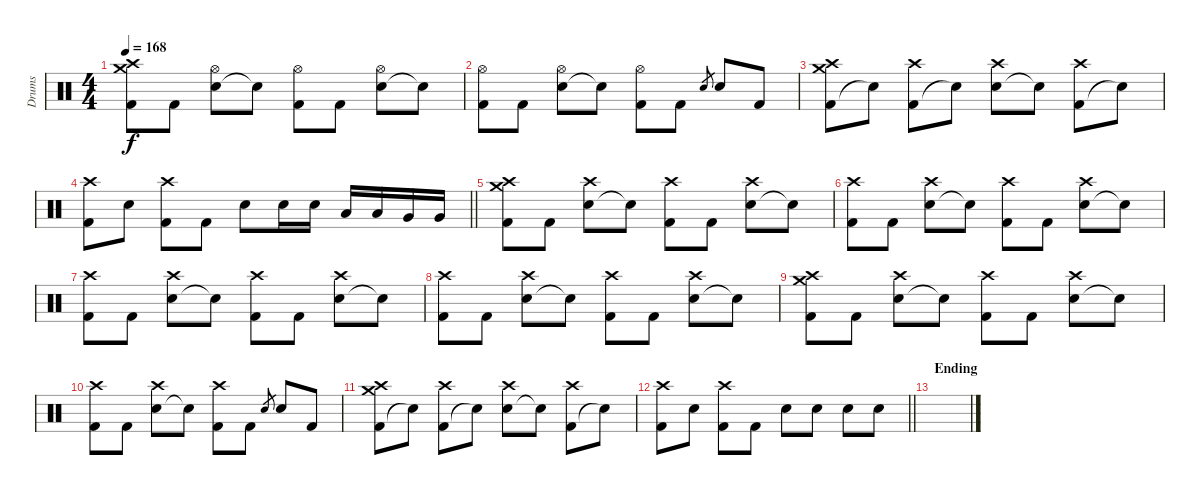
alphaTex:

\track ("Drums" "Drums") {instrument percussion}
\staff {score}
\articulation defaults
\ts (4 4)
\tempo 168
\clef neutral
\ks c
("Kick (hit) 2" "Crash medium (hit)" "Crash high (hit)").8{dy f} "Kick (hit) 2".8 ("Electric Snare (hit)" "Hi-Hat (open)").8 "Snare (hit)"{t}.8 ("Kick (hit) 2" "Hi-Hat (open)").8 "Kick (hit) 2".8 ("Electric Snare (hit)" "Hi-Hat (open)").8 "Snare (hit)"{t}.8 |
("Kick (hit) 2" "Hi-Hat (open)").8 "Kick (hit) 2".8 ("Electric Snare (hit)" "Hi-Hat (open)").8 "Snare (hit)"{t}.8 ("Kick (hit) 2" "Hi-Hat (open)").8 "Kick (hit) 2".8 "Electric Snare (hit)".8{gr} "Electric Snare (hit)".8 "Kick (hit) 2".8 |
("Kick (hit) 2" "Crash medium (hit)" "Crash high (hit)").8 "Snare (hit)"{t}.8 ("Kick (hit) 2" "Crash high (hit)").8 "Snare (hit)"{t}.8 ("Electric Snare (hit)" "Crash high (hit)").8 "Snare (hit)"{t}.8 ("Kick (hit) 2" "Crash high (hit)").8 "Snare (hit)"{t}.8 |
\barLineRight lightlight
("Kick (hit) 2" "Crash high (hit)").8 "Electric Snare (hit)".8 ("Kick (hit) 2" "Crash high (hit)").8 "Kick (hit) 2".8 "Electric Snare (hit)".8 "Electric Snare (hit)".16 "Electric Snare (hit)".16 "Low Tom (hit)".16 "Low Tom (hit)".16 "Very Low Tom (hit)".16 "Very Low Tom (hit)".16 |
("Kick (hit) 2" "Crash medium (hit)" "Crash high (hit)").8 "Kick (hit) 2".8 ("Electric Snare (hit)" "Crash high (hit)").8 "Snare (hit)"{t}.8 ("Kick (hit) 2" "Crash high (hit)").8 "Kick (hit) 2".8 ("Electric Snare (hit)" "Crash high (hit)").8 "Snare (hit)"{t}.8 |
("Kick (hit) 2" "Crash high (hit)").8 "Kick (hit) 2".8 ("Electric Snare (hit)" "Crash high (hit)").8 "Snare (hit)"{t}.8 ("Kick (hit) 2" "Crash high (hit)").8 "Kick (hit) 2".8 ("Electric Snare (hit)" "Crash high (hit)").8 "Snare (hit)"{t}.8 |
("Kick (hit) 2" "Crash high (hit)").8 "Kick (hit) 2".8 ("Electric Snare (hit)" "Crash high (hit)").8 "Snare (hit)"{t}.8 ("Kick (hit) 2" "Crash high (hit)").8 "Kick (hit) 2".8 ("Electric Snare (hit)" "Crash high (hit)").8 "Snare (hit)"{t}.8 |
("Kick (hit) 2" "Crash high (hit)").8 "Kick (hit) 2".8 ("Electric Snare (hit)" "Crash high (hit)").8 "Snare (hit)"{t}.8 ("Kick (hit) 2" "Crash high (hit)").8 "Kick (hit) 2".8 ("Electric Snare (hit)" "Crash high (hit)").8 "Snare (hit)"{t}.8 |
("Kick (hit) 2" "Crash medium (hit)" "Crash high (hit)").8 "Kick (hit) 2".8 ("Electric Snare (hit)" "Crash high (hit)").8 "Snare (hit)"{t}.8 ("Kick (hit) 2" "Crash high (hit)").8 "Kick (hit) 2".8 ("Electric Snare (hit)" "Crash high (hit)").8 "Snare (hit)"{t}.8 |
("Kick (hit) 2" "Crash high (hit)").8 "Kick (hit) 2".8 ("Electric Snare (hit)" "Crash high (hit)").8 "Snare (hit)"{t}.8 ("Kick (hit) 2" "Crash high (hit)").8 "Kick (hit) 2".8 "Electric Snare (hit)".8{gr} "Electric Snare (hit)".8 "Kick (hit) 2".8 |
("Kick (hit) 2" "Crash medium (hit)" "Crash high (hit)").8 "Snare (hit)"{t}.8 ("Kick (hit) 2" "Crash high (hit)").8 "Snare (hit)"{t}.8 ("Electric Snare (hit)" "Crash high (hit)").8 "Snare (hit)"{t}.8 ("Kick (hit) 2" "Crash high (hit)").8 "Snare (hit)"{t}.8 |
\barLineRight lightlight
("Kick (hit) 2" "Crash high (hit)").8 "Electric Snare (hit)".8 ("Kick (hit) 2" "Crash high (hit)").8 "Kick (hit) 2".8 "Electric Snare (hit)".8 "Electric Snare (hit)".8 "Electric Snare (hit)".8 "Electric Snare (hit)".8 |
\section ("" "Ending")
